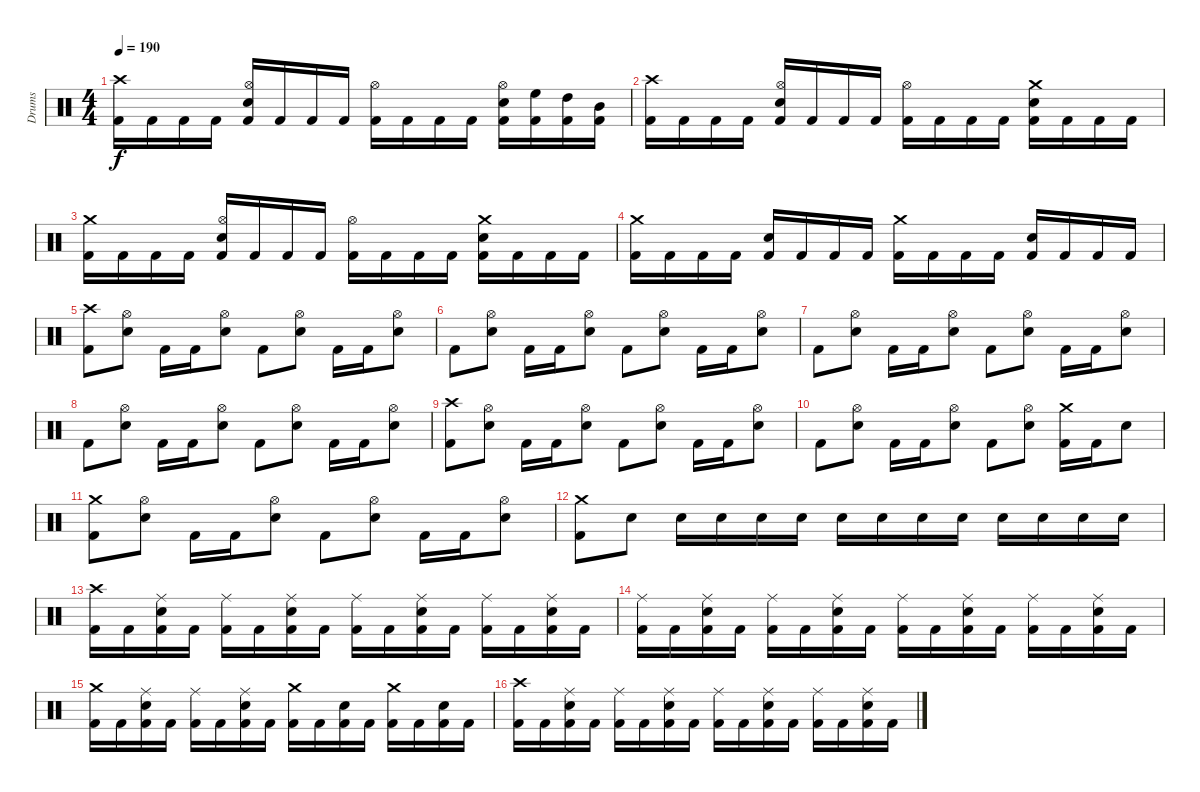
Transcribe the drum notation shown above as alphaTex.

\track ("Drums" "Drums") {instrument percussion}
\staff {score}
\articulation defaults
\ts (4 4)
\tempo 190
\clef neutral
\ks c
("Crash high (hit)" "Kick (hit) 2").16{dy f} "Kick (hit) 2".16 "Kick (hit) 2".16 "Kick (hit) 2".16 ("Hi-Hat (open)" "Electric Snare (hit)" "Kick (hit) 2").16 "Kick (hit) 2".16 "Kick (hit) 2".16 "Kick (hit) 2".16 ("Hi-Hat (open)" "Kick (hit) 2").16 "Kick (hit) 2".16 "Kick (hit) 2".16 "Kick (hit) 2".16 ("Hi-Hat (open)" "Electric Snare (hit)" "Kick (hit) 2").16 ("High Floor Tom (hit)" "Kick (hit) 2").16 ("High Tom (hit)" "Kick (hit) 2").16 ("Mid Tom (hit)" "Kick (hit) 2").16 |
("Crash high (hit)" "Kick (hit) 2").16 "Kick (hit) 2".16 "Kick (hit) 2".16 "Kick (hit) 2".16 ("Hi-Hat (open)" "Electric Snare (hit)" "Kick (hit) 2").16 "Kick (hit) 2".16 "Kick (hit) 2".16 "Kick (hit) 2".16 ("Hi-Hat (open)" "Kick (hit) 2").16 "Kick (hit) 2".16 "Kick (hit) 2".16 "Kick (hit) 2".16 ("Crash medium (hit)" "Electric Snare (hit)" "Kick (hit) 2").16 "Kick (hit) 2".16 "Kick (hit) 2".16 "Kick (hit) 2".16 |
("Crash medium (hit)" "Kick (hit) 2").16 "Kick (hit) 2".16 "Kick (hit) 2".16 "Kick (hit) 2".16 ("Hi-Hat (open)" "Electric Snare (hit)" "Kick (hit) 2").16 "Kick (hit) 2".16 "Kick (hit) 2".16 "Kick (hit) 2".16 ("Hi-Hat (open)" "Kick (hit) 2").16 "Kick (hit) 2".16 "Kick (hit) 2".16 "Kick (hit) 2".16 ("Crash medium (hit)" "Electric Snare (hit)" "Kick (hit) 2").16 "Kick (hit) 2".16 "Kick (hit) 2".16 "Kick (hit) 2".16 |
("Crash medium (hit)" "Kick (hit) 2").16 "Kick (hit) 2".16 "Kick (hit) 2".16 "Kick (hit) 2".16 ("Electric Snare (hit)" "Kick (hit) 2").16 "Kick (hit) 2".16 "Kick (hit) 2".16 "Kick (hit) 2".16 ("Crash medium (hit)" "Kick (hit) 2").16 "Kick (hit) 2".16 "Kick (hit) 2".16 "Kick (hit) 2".16 ("Electric Snare (hit)" "Kick (hit) 2").16 "Kick (hit) 2".16 "Kick (hit) 2".16 "Kick (hit) 2".16 |
("Crash high (hit)" "Kick (hit) 2").8 ("Hi-Hat (open)" "Electric Snare (hit)").8 "Kick (hit) 2".16 "Kick (hit) 2".16 ("Hi-Hat (open)" "Electric Snare (hit)").8 "Kick (hit) 2".8 ("Hi-Hat (open)" "Electric Snare (hit)").8 "Kick (hit) 2".16 "Kick (hit) 2".16 ("Hi-Hat (open)" "Electric Snare (hit)").8 |
"Kick (hit) 2".8 ("Hi-Hat (open)" "Electric Snare (hit)").8 "Kick (hit) 2".16 "Kick (hit) 2".16 ("Hi-Hat (open)" "Electric Snare (hit)").8 "Kick (hit) 2".8 ("Hi-Hat (open)" "Electric Snare (hit)").8 "Kick (hit) 2".16 "Kick (hit) 2".16 ("Hi-Hat (open)" "Electric Snare (hit)").8 |
"Kick (hit) 2".8 ("Hi-Hat (open)" "Electric Snare (hit)").8 "Kick (hit) 2".16 "Kick (hit) 2".16 ("Hi-Hat (open)" "Electric Snare (hit)").8 "Kick (hit) 2".8 ("Hi-Hat (open)" "Electric Snare (hit)").8 "Kick (hit) 2".16 "Kick (hit) 2".16 ("Hi-Hat (open)" "Electric Snare (hit)").8 |
"Kick (hit) 2".8 ("Hi-Hat (open)" "Electric Snare (hit)").8 "Kick (hit) 2".16 "Kick (hit) 2".16 ("Hi-Hat (open)" "Electric Snare (hit)").8 "Kick (hit) 2".8 ("Hi-Hat (open)" "Electric Snare (hit)").8 "Kick (hit) 2".16 "Kick (hit) 2".16 ("Hi-Hat (open)" "Electric Snare (hit)").8 |
("Crash high (hit)" "Kick (hit) 2").8 ("Hi-Hat (open)" "Electric Snare (hit)").8 "Kick (hit) 2".16 "Kick (hit) 2".16 ("Hi-Hat (open)" "Electric Snare (hit)").8 "Kick (hit) 2".8 ("Hi-Hat (open)" "Electric Snare (hit)").8 "Kick (hit) 2".16 "Kick (hit) 2".16 ("Hi-Hat (open)" "Electric Snare (hit)").8 |
"Kick (hit) 2".8 ("Hi-Hat (open)" "Electric Snare (hit)").8 "Kick (hit) 2".16 "Kick (hit) 2".16 ("Hi-Hat (open)" "Electric Snare (hit)").8 "Kick (hit) 2".8 ("Hi-Hat (open)" "Electric Snare (hit)").8 ("Crash medium (hit)" "Kick (hit) 2").16 "Kick (hit) 2".16 "Electric Snare (hit)".8 |
("Crash medium (hit)" "Kick (hit) 2").8 ("Hi-Hat (open)" "Electric Snare (hit)").8 "Kick (hit) 2".16 "Kick (hit) 2".16 ("Hi-Hat (open)" "Electric Snare (hit)").8 "Kick (hit) 2".8 ("Hi-Hat (open)" "Electric Snare (hit)").8 "Kick (hit) 2".16 "Kick (hit) 2".16 ("Hi-Hat (open)" "Electric Snare (hit)").8 |
("Crash medium (hit)" "Kick (hit) 2").8 "Electric Snare (hit)".8 "Electric Snare (hit)".16 "Electric Snare (hit)".16 "Electric Snare (hit)".16 "Electric Snare (hit)".16 "Electric Snare (hit)".16 "Electric Snare (hit)".16 "Electric Snare (hit)".16 "Electric Snare (hit)".16 "Electric Snare (hit)".16 "Electric Snare (hit)".16 "Electric Snare (hit)".16 "Electric Snare (hit)".16 |
("Crash high (hit)" "Kick (hit) 2").16 "Kick (hit) 2".16 ("Ride (middle)" "Electric Snare (hit)" "Kick (hit) 2").16 "Kick (hit) 2".16 ("Ride (middle)" "Kick (hit) 2").16 "Kick (hit) 2".16 ("Ride (middle)" "Electric Snare (hit)" "Kick (hit) 2").16 "Kick (hit) 2".16 ("Ride (middle)" "Kick (hit) 2").16 "Kick (hit) 2".16 ("Ride (middle)" "Electric Snare (hit)" "Kick (hit) 2").16 "Kick (hit) 2".16 ("Ride (middle)" "Kick (hit) 2").16 "Kick (hit) 2".16 ("Ride (middle)" "Electric Snare (hit)" "Kick (hit) 2").16 "Kick (hit) 2".16 |
("Ride (middle)" "Kick (hit) 2").16 "Kick (hit) 2".16 ("Ride (middle)" "Electric Snare (hit)" "Kick (hit) 2").16 "Kick (hit) 2".16 ("Ride (middle)" "Kick (hit) 2").16 "Kick (hit) 2".16 ("Ride (middle)" "Electric Snare (hit)" "Kick (hit) 2").16 "Kick (hit) 2".16 ("Ride (middle)" "Kick (hit) 2").16 "Kick (hit) 2".16 ("Ride (middle)" "Electric Snare (hit)" "Kick (hit) 2").16 "Kick (hit) 2".16 ("Ride (middle)" "Kick (hit) 2").16 "Kick (hit) 2".16 ("Ride (middle)" "Electric Snare (hit)" "Kick (hit) 2").16 "Kick (hit) 2".16 |
("Crash medium (hit)" "Kick (hit) 2").16 "Kick (hit) 2".16 ("Ride (middle)" "Electric Snare (hit)" "Kick (hit) 2").16 "Kick (hit) 2".16 ("Ride (middle)" "Kick (hit) 2").16 "Kick (hit) 2".16 ("Ride (middle)" "Electric Snare (hit)" "Kick (hit) 2").16 "Kick (hit) 2".16 ("Crash medium (hit)" "Kick (hit) 2").16 "Kick (hit) 2".16 ("Electric Snare (hit)" "Kick (hit) 2").16 "Kick (hit) 2".16 ("Crash medium (hit)" "Kick (hit) 2").16 "Kick (hit) 2".16 ("Electric Snare (hit)" "Kick (hit) 2").16 "Kick (hit) 2".16 |
("Crash high (hit)" "Kick (hit) 2").16 "Kick (hit) 2".16 ("Ride (middle)" "Electric Snare (hit)" "Kick (hit) 2").16 "Kick (hit) 2".16 ("Ride (middle)" "Kick (hit) 2").16 "Kick (hit) 2".16 ("Ride (middle)" "Electric Snare (hit)" "Kick (hit) 2").16 "Kick (hit) 2".16 ("Ride (middle)" "Kick (hit) 2").16 "Kick (hit) 2".16 ("Ride (middle)" "Electric Snare (hit)" "Kick (hit) 2").16 "Kick (hit) 2".16 ("Ride (middle)" "Kick (hit) 2").16 "Kick (hit) 2".16 ("Ride (middle)" "Electric Snare (hit)" "Kick (hit) 2").16 "Kick (hit) 2".16
